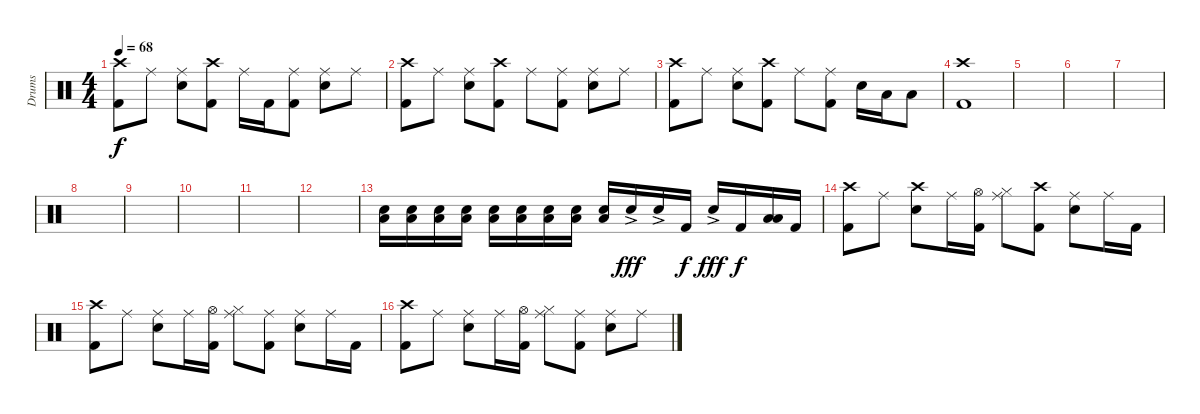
\track ("Drums" "Drums") {instrument percussion}
\staff {score}
\articulation defaults
\ts (4 4)
\tempo 68
\clef neutral
\ks c
("Crash high (hit)" "Kick (hit) 2").8{dy f} "Ride (middle)".8 ("Ride (middle)" "Electric Snare (hit)").8 ("Crash high (hit)" "Kick (hit) 2").8 "Ride (middle)".16 "Kick (hit) 2".16 ("Ride (middle)" "Kick (hit) 2").8 ("Ride (middle)" "Electric Snare (hit)").8 "Ride (middle)".8 |
("Crash high (hit)" "Kick (hit) 2").8 "Ride (middle)".8 ("Ride (middle)" "Electric Snare (hit)").8 ("Crash high (hit)" "Kick (hit) 2").8 "Ride (middle)".8 ("Ride (middle)" "Kick (hit) 2").8 ("Ride (middle)" "Electric Snare (hit)").8 "Ride (middle)".8 |
("Crash high (hit)" "Kick (hit) 2").8 "Ride (middle)".8 ("Ride (middle)" "Electric Snare (hit)").8 ("Crash high (hit)" "Kick (hit) 2").8 "Ride (middle)".8 ("Ride (middle)" "Kick (hit) 2").8 "Electric Snare (hit)".16 "Low Tom (hit)".16 "Low Floor Tom (hit)".8 |
("Crash high (hit)" "Kick (hit) 2").1 |
|
|
|
|
|
|
|
|
("Electric Snare (hit)" "Low Floor Tom (hit)").16{volume 13} ("Electric Snare (hit)" "Low Floor Tom (hit)").16 ("Electric Snare (hit)" "Low Floor Tom (hit)").16 ("Electric Snare (hit)" "Low Floor Tom (hit)").16 ("Electric Snare (hit)" "Low Floor Tom (hit)").16 ("Electric Snare (hit)" "Low Floor Tom (hit)").16 ("Electric Snare (hit)" "Low Floor Tom (hit)").16 ("Electric Snare (hit)" "Low Floor Tom (hit)").16 ("Electric Snare (hit)" "Low Floor Tom (hit)").16 "Electric Snare (hit)"{ac}.16{dy fff} "Electric Snare (hit)"{ac}.16 "Kick (hit) 2".16{dy f} "Electric Snare (hit)"{ac}.16{dy fff} "Kick (hit) 2".16{dy f} ("Low Tom (hit)" "Low Floor Tom (hit)").16 "Kick (hit) 2".16 |
("Crash high (hit)" "Kick (hit) 2").8 "Ride (middle)".8 ("Crash high (hit)" "Electric Snare (hit)").8 "Ride (middle)".16 ("Hi-Hat (open)" "Kick (hit) 2").16 ("Ride (middle)" "Hi-Hat (closed)").8 ("Crash high (hit)" "Kick (hit) 2").8 ("Ride (middle)" "Electric Snare (hit)").8 "Ride (middle)".16 "Kick (hit) 2".16 |
("Crash high (hit)" "Kick (hit) 2").8 "Ride (middle)".8 ("Ride (middle)" "Electric Snare (hit)").8 "Ride (middle)".16 ("Hi-Hat (open)" "Kick (hit) 2").16 ("Ride (middle)" "Hi-Hat (closed)").8 ("Ride (middle)" "Kick (hit) 2").8 ("Ride (middle)" "Electric Snare (hit)").8 "Ride (middle)".16 "Kick (hit) 2".16 |
("Crash high (hit)" "Kick (hit) 2").8 "Ride (middle)".8 ("Ride (middle)" "Electric Snare (hit)").8 "Ride (middle)".16 ("Hi-Hat (open)" "Kick (hit) 2").16 ("Ride (middle)" "Hi-Hat (closed)").8 ("Ride (middle)" "Kick (hit) 2").8 ("Ride (middle)" "Electric Snare (hit)").8 "Ride (middle)".8
